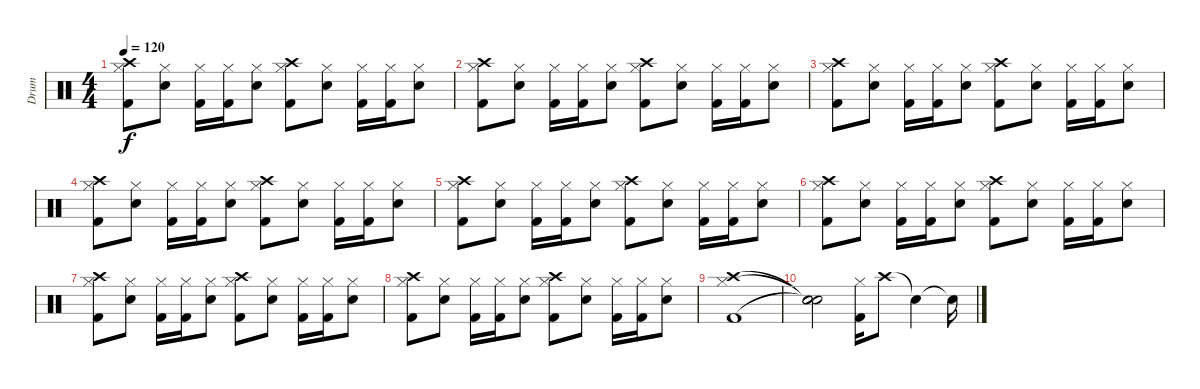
\track ("Drum" "Drum") {instrument percussion}
\staff {score}
\articulation defaults
\ts (4 4)
\tempo 120
\clef neutral
\ks c
("Kick (hit) 2" "Crash high (hit)" "Hi-Hat (closed)").8{dy f} ("Electric Snare (hit)" "Hi-Hat (closed)").8 ("Kick (hit) 2" "Hi-Hat (closed)").16 ("Kick (hit) 2" "Hi-Hat (closed)").16 ("Electric Snare (hit)" "Hi-Hat (closed)").8 ("Kick (hit) 2" "Crash high (hit)" "Hi-Hat (closed)").8 ("Electric Snare (hit)" "Hi-Hat (closed)").8 ("Kick (hit) 2" "Hi-Hat (closed)").16 ("Kick (hit) 2" "Hi-Hat (closed)").16 ("Electric Snare (hit)" "Hi-Hat (closed)").8 |
("Kick (hit) 2" "Crash high (hit)" "Hi-Hat (closed)").8 ("Electric Snare (hit)" "Hi-Hat (closed)").8 ("Kick (hit) 2" "Hi-Hat (closed)").16 ("Kick (hit) 2" "Hi-Hat (closed)").16 ("Electric Snare (hit)" "Hi-Hat (closed)").8 ("Kick (hit) 2" "Crash high (hit)" "Hi-Hat (closed)").8 ("Electric Snare (hit)" "Hi-Hat (closed)").8 ("Kick (hit) 2" "Hi-Hat (closed)").16 ("Kick (hit) 2" "Hi-Hat (closed)").16 ("Electric Snare (hit)" "Hi-Hat (closed)").8 |
("Kick (hit) 2" "Crash high (hit)" "Hi-Hat (closed)").8 ("Electric Snare (hit)" "Hi-Hat (closed)").8 ("Kick (hit) 2" "Hi-Hat (closed)").16 ("Kick (hit) 2" "Hi-Hat (closed)").16 ("Electric Snare (hit)" "Hi-Hat (closed)").8 ("Kick (hit) 2" "Crash high (hit)" "Hi-Hat (closed)").8 ("Electric Snare (hit)" "Hi-Hat (closed)").8 ("Kick (hit) 2" "Hi-Hat (closed)").16 ("Kick (hit) 2" "Hi-Hat (closed)").16 ("Electric Snare (hit)" "Hi-Hat (closed)").8 |
("Kick (hit) 2" "Crash high (hit)" "Hi-Hat (closed)").8 ("Electric Snare (hit)" "Hi-Hat (closed)").8 ("Kick (hit) 2" "Hi-Hat (closed)").16 ("Kick (hit) 2" "Hi-Hat (closed)").16 ("Electric Snare (hit)" "Hi-Hat (closed)").8 ("Kick (hit) 2" "Crash high (hit)" "Hi-Hat (closed)").8 ("Electric Snare (hit)" "Hi-Hat (closed)").8 ("Kick (hit) 2" "Hi-Hat (closed)").16 ("Kick (hit) 2" "Hi-Hat (closed)").16 ("Electric Snare (hit)" "Hi-Hat (closed)").8 |
("Kick (hit) 2" "Crash high (hit)" "Hi-Hat (closed)").8 ("Electric Snare (hit)" "Hi-Hat (closed)").8 ("Kick (hit) 2" "Hi-Hat (closed)").16 ("Kick (hit) 2" "Hi-Hat (closed)").16 ("Electric Snare (hit)" "Hi-Hat (closed)").8 ("Kick (hit) 2" "Crash high (hit)" "Hi-Hat (closed)").8 ("Electric Snare (hit)" "Hi-Hat (closed)").8 ("Kick (hit) 2" "Hi-Hat (closed)").16 ("Kick (hit) 2" "Hi-Hat (closed)").16 ("Electric Snare (hit)" "Hi-Hat (closed)").8 |
("Kick (hit) 2" "Crash high (hit)" "Hi-Hat (closed)").8 ("Electric Snare (hit)" "Hi-Hat (closed)").8 ("Kick (hit) 2" "Hi-Hat (closed)").16 ("Kick (hit) 2" "Hi-Hat (closed)").16 ("Electric Snare (hit)" "Hi-Hat (closed)").8 ("Kick (hit) 2" "Crash high (hit)" "Hi-Hat (closed)").8 ("Electric Snare (hit)" "Hi-Hat (closed)").8 ("Kick (hit) 2" "Hi-Hat (closed)").16 ("Kick (hit) 2" "Hi-Hat (closed)").16 ("Electric Snare (hit)" "Hi-Hat (closed)").8 |
("Kick (hit) 2" "Crash high (hit)" "Hi-Hat (closed)").8 ("Electric Snare (hit)" "Hi-Hat (closed)").8 ("Kick (hit) 2" "Hi-Hat (closed)").16 ("Kick (hit) 2" "Hi-Hat (closed)").16 ("Electric Snare (hit)" "Hi-Hat (closed)").8 ("Kick (hit) 2" "Crash high (hit)" "Hi-Hat (closed)").8 ("Electric Snare (hit)" "Hi-Hat (closed)").8 ("Kick (hit) 2" "Hi-Hat (closed)").16 ("Kick (hit) 2" "Hi-Hat (closed)").16 ("Electric Snare (hit)" "Hi-Hat (closed)").8 |
("Kick (hit) 2" "Crash high (hit)" "Hi-Hat (closed)").8 ("Electric Snare (hit)" "Hi-Hat (closed)").8 ("Kick (hit) 2" "Hi-Hat (closed)").16 ("Kick (hit) 2" "Hi-Hat (closed)").16 ("Electric Snare (hit)" "Hi-Hat (closed)").8 ("Kick (hit) 2" "Crash high (hit)" "Hi-Hat (closed)").8 ("Electric Snare (hit)" "Hi-Hat (closed)").8 ("Kick (hit) 2" "Hi-Hat (closed)").16 ("Kick (hit) 2" "Hi-Hat (closed)").16 ("Electric Snare (hit)" "Hi-Hat (closed)").8 |
("Kick (hit) 2" "Crash high (hit)" "Hi-Hat (closed)").1 |
("Snare (hit)"{t} "Snare (hit)"{t} "Snare (hit)"{t}).2 ("Kick (hit) 2" "Hi-Hat (closed)").16 "Crash high (hit)".8 "Snare (hit)"{t}.4 "Snare (hit)"{t}.16
